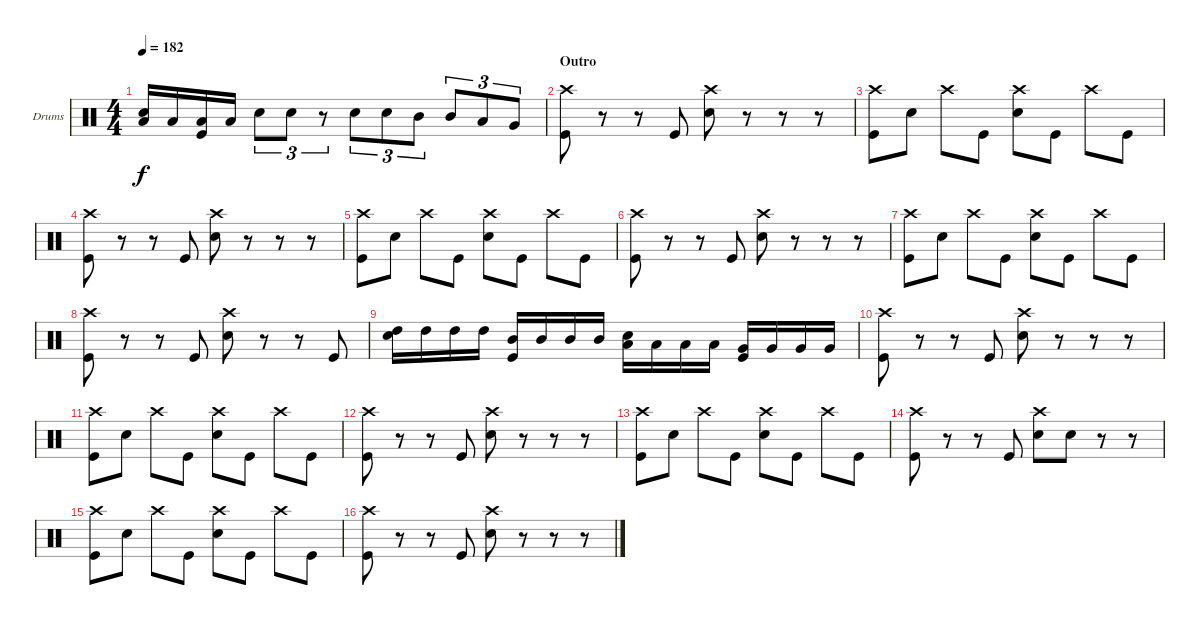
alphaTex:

\defaultSystemsLayout 4
\bracketExtendMode groupsimilarinstruments
\firstSystemTrackNameOrientation horizontal
\otherSystemsTrackNameOrientation horizontal
\track ("Drumkit" "Drums") {instrument percussion}
\staff {score}
\articulation defaults
\ts (4 4)
\tempo 182
\clef neutral
\ks c
("Low Tom (hit)" "Snare (hit) 2").16{dy f} "Low Tom (hit)".16 ("Low Tom (hit)" "Kick (hit)").16 "Low Tom (hit)".16 "Snare (hit) 2".8{tu (3 2)} "Snare (hit) 2".8{tu (3 2)} r.8{tu (3 2)} "Snare (hit) 2".8{tu (3 2)} "Snare (hit) 2".8{tu (3 2)} "Mid Tom (hit)".8{tu (3 2)} "Mid Tom (hit)".8{tu (3 2)} "Low Tom (hit)".8{tu (3 2)} "Very Low Tom (hit)".8{tu (3 2)} |
\section ("" "Outro")
("Kick (hit)" "Crash high (hit)").8 r.8 r.8 "Kick (hit)".8 ("Snare (hit) 2" "Crash high (hit)").8 r.8 r.8 r.8 |
("Kick (hit)" "Crash high (hit)").8 "Snare (hit) 2".8 "Crash high (hit)".8 "Kick (hit)".8 ("Snare (hit) 2" "Crash high (hit)").8 "Kick (hit)".8 "Crash high (hit)".8 "Kick (hit)".8 |
("Kick (hit)" "Crash high (hit)").8 r.8 r.8 "Kick (hit)".8 ("Snare (hit) 2" "Crash high (hit)").8 r.8 r.8 r.8 |
("Kick (hit)" "Crash high (hit)").8 "Snare (hit) 2".8 "Crash high (hit)".8 "Kick (hit)".8 ("Snare (hit) 2" "Crash high (hit)").8 "Kick (hit)".8 "Crash high (hit)".8 "Kick (hit)".8 |
("Kick (hit)" "Crash high (hit)").8 r.8 r.8 "Kick (hit)".8 ("Snare (hit) 2" "Crash high (hit)").8 r.8 r.8 r.8 |
("Kick (hit)" "Crash high (hit)").8 "Snare (hit) 2".8 "Crash high (hit)".8 "Kick (hit)".8 ("Snare (hit) 2" "Crash high (hit)").8 "Kick (hit)".8 "Crash high (hit)".8 "Kick (hit)".8 |
("Kick (hit)" "Crash high (hit)").8 r.8 r.8 "Kick (hit)".8 ("Snare (hit) 2" "Crash high (hit)").8 r.8 r.8 "Kick (hit)".8 |
("Snare (hit) 2" "High Tom (hit)").16 "High Tom (hit)".16 "High Tom (hit)".16 "High Tom (hit)".16 ("Kick (hit)" "Mid Tom (hit)").16 "Mid Tom (hit)".16 "Mid Tom (hit)".16 "Mid Tom (hit)".16 ("Snare (hit) 2" "Low Tom (hit)").16 "Low Tom (hit)".16 "Low Tom (hit)".16 "Low Tom (hit)".16 ("Kick (hit)" "Very Low Tom (hit)").16 "Very Low Tom (hit)".16 "Very Low Tom (hit)".16 "Very Low Tom (hit)".16 |
("Kick (hit)" "Crash high (hit)").8 r.8 r.8 "Kick (hit)".8 ("Snare (hit) 2" "Crash high (hit)").8 r.8 r.8 r.8 |
("Kick (hit)" "Crash high (hit)").8 "Snare (hit) 2".8 "Crash high (hit)".8 "Kick (hit)".8 ("Snare (hit) 2" "Crash high (hit)").8 "Kick (hit)".8 "Crash high (hit)".8 "Kick (hit)".8 |
("Kick (hit)" "Crash high (hit)").8 r.8 r.8 "Kick (hit)".8 ("Snare (hit) 2" "Crash high (hit)").8 r.8 r.8 r.8 |
("Kick (hit)" "Crash high (hit)").8 "Snare (hit) 2".8 "Crash high (hit)".8 "Kick (hit)".8 ("Snare (hit) 2" "Crash high (hit)").8 "Kick (hit)".8 "Crash high (hit)".8 "Kick (hit)".8 |
("Kick (hit)" "Crash high (hit)").8 r.8 r.8 "Kick (hit)".8 ("Snare (hit) 2" "Crash high (hit)").8 "Snare (hit) 2".8 r.8 r.8 |
("Kick (hit)" "Crash high (hit)").8 "Snare (hit) 2".8 "Crash high (hit)".8 "Kick (hit)".8 ("Snare (hit) 2" "Crash high (hit)").8 "Kick (hit)".8 "Crash high (hit)".8 "Kick (hit)".8 |
("Kick (hit)" "Crash high (hit)").8 r.8 r.8 "Kick (hit)".8 ("Snare (hit) 2" "Crash high (hit)").8 r.8 r.8 r.8
